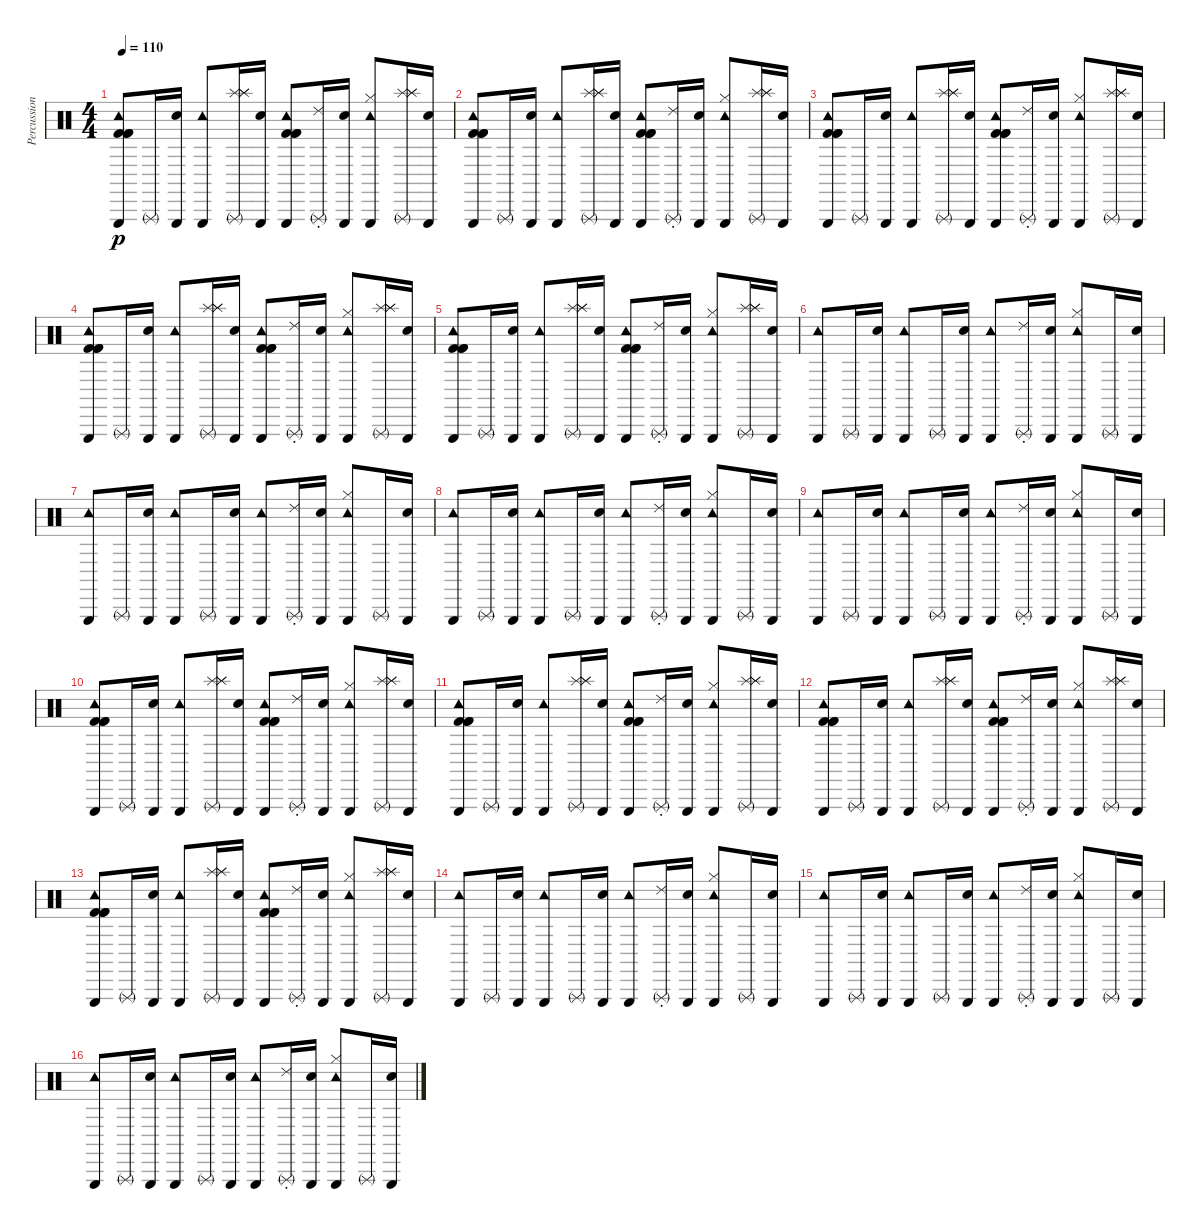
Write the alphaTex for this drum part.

\track ("Percussion" "Percussion") {instrument percussion}
\staff {score}
\articulation defaults
\ts (4 4)
\tempo 110
\clef neutral
\ks c
("Tambourine (hit)" "Triangle (hit)" "Kick (hit) 2" "Kick (hit) 2" "Kick (hit) 2").8{dy p} "Triangle (rnute)".16 ("Metronome (bell)" "Triangle (hit)").16 ("Tambourine (hit)" "Triangle (hit)").8 ("Triangle (rnute)" "Splash (hit)" "Splash (hit)" "Splash (hit)").16 ("Metronome (bell)" "Triangle (hit)").16 ("Tambourine (hit)" "Triangle (hit)" "Kick (hit) 2" "Kick (hit) 2" "Kick (hit) 2").8 ("Triangle (rnute)" "Ride (choke) 2").16 ("Metronome (bell)" "Triangle (hit)").16 ("Tambourine (hit)" "Triangle (hit)" "Hi-Hat (closed)").8 ("Triangle (rnute)" "Splash (hit)" "Splash (hit)" "Splash (hit)").16 ("Metronome (bell)" "Triangle (hit)").16 |
("Tambourine (hit)" "Triangle (hit)" "Kick (hit) 2" "Kick (hit) 2" "Kick (hit) 2").8 "Triangle (rnute)".16 ("Metronome (bell)" "Triangle (hit)").16 ("Tambourine (hit)" "Triangle (hit)").8 ("Triangle (rnute)" "Splash (hit)" "Splash (hit)" "Splash (hit)").16 ("Metronome (bell)" "Triangle (hit)").16 ("Tambourine (hit)" "Triangle (hit)" "Kick (hit) 2" "Kick (hit) 2" "Kick (hit) 2").8 ("Triangle (rnute)" "Ride (choke) 2").16 ("Metronome (bell)" "Triangle (hit)").16 ("Tambourine (hit)" "Triangle (hit)" "Hi-Hat (closed)").8 ("Triangle (rnute)" "Splash (hit)" "Splash (hit)" "Splash (hit)").16 ("Metronome (bell)" "Triangle (hit)").16 |
("Tambourine (hit)" "Triangle (hit)" "Kick (hit) 2" "Kick (hit) 2" "Kick (hit) 2").8 "Triangle (rnute)".16 ("Metronome (bell)" "Triangle (hit)").16 ("Tambourine (hit)" "Triangle (hit)").8 ("Triangle (rnute)" "Splash (hit)" "Splash (hit)" "Splash (hit)").16 ("Metronome (bell)" "Triangle (hit)").16 ("Tambourine (hit)" "Triangle (hit)" "Kick (hit) 2" "Kick (hit) 2" "Kick (hit) 2").8 ("Triangle (rnute)" "Ride (choke) 2").16 ("Metronome (bell)" "Triangle (hit)").16 ("Tambourine (hit)" "Triangle (hit)" "Hi-Hat (closed)").8 ("Triangle (rnute)" "Splash (hit)" "Splash (hit)" "Splash (hit)").16 ("Metronome (bell)" "Triangle (hit)").16 |
("Tambourine (hit)" "Triangle (hit)" "Kick (hit) 2" "Kick (hit) 2" "Kick (hit) 2").8 "Triangle (rnute)".16 ("Metronome (bell)" "Triangle (hit)").16 ("Tambourine (hit)" "Triangle (hit)").8 ("Triangle (rnute)" "Splash (hit)" "Splash (hit)" "Splash (hit)").16 ("Metronome (bell)" "Triangle (hit)").16 ("Tambourine (hit)" "Triangle (hit)" "Kick (hit) 2" "Kick (hit) 2" "Kick (hit) 2").8 ("Triangle (rnute)" "Ride (choke) 2").16 ("Metronome (bell)" "Triangle (hit)").16 ("Tambourine (hit)" "Triangle (hit)" "Hi-Hat (closed)").8 ("Triangle (rnute)" "Splash (hit)" "Splash (hit)" "Splash (hit)").16 ("Metronome (bell)" "Triangle (hit)").16 |
("Tambourine (hit)" "Triangle (hit)" "Kick (hit) 2" "Kick (hit) 2" "Kick (hit) 2").8 "Triangle (rnute)".16 ("Metronome (bell)" "Triangle (hit)").16 ("Tambourine (hit)" "Triangle (hit)").8 ("Triangle (rnute)" "Splash (hit)" "Splash (hit)" "Splash (hit)").16 ("Metronome (bell)" "Triangle (hit)").16 ("Tambourine (hit)" "Triangle (hit)" "Kick (hit) 2" "Kick (hit) 2" "Kick (hit) 2").8 ("Triangle (rnute)" "Ride (choke) 2").16 ("Metronome (bell)" "Triangle (hit)").16 ("Tambourine (hit)" "Triangle (hit)" "Hi-Hat (closed)").8 ("Triangle (rnute)" "Splash (hit)" "Splash (hit)" "Splash (hit)").16 ("Metronome (bell)" "Triangle (hit)").16 |
("Tambourine (hit)" "Triangle (hit)").8 "Triangle (rnute)".16 ("Metronome (bell)" "Triangle (hit)").16 ("Tambourine (hit)" "Triangle (hit)").8 "Triangle (rnute)".16 ("Metronome (bell)" "Triangle (hit)").16 ("Tambourine (hit)" "Triangle (hit)").8 ("Triangle (rnute)" "Ride (choke) 2").16 ("Metronome (bell)" "Triangle (hit)").16 ("Tambourine (hit)" "Triangle (hit)" "Hi-Hat (closed)").8 "Triangle (rnute)".16 ("Metronome (bell)" "Triangle (hit)").16 |
("Tambourine (hit)" "Triangle (hit)").8 "Triangle (rnute)".16 ("Metronome (bell)" "Triangle (hit)").16 ("Tambourine (hit)" "Triangle (hit)").8 "Triangle (rnute)".16 ("Metronome (bell)" "Triangle (hit)").16 ("Tambourine (hit)" "Triangle (hit)").8 ("Triangle (rnute)" "Ride (choke) 2").16 ("Metronome (bell)" "Triangle (hit)").16 ("Tambourine (hit)" "Triangle (hit)" "Hi-Hat (closed)").8 "Triangle (rnute)".16 ("Metronome (bell)" "Triangle (hit)").16 |
("Tambourine (hit)" "Triangle (hit)").8 "Triangle (rnute)".16 ("Metronome (bell)" "Triangle (hit)").16 ("Tambourine (hit)" "Triangle (hit)").8 "Triangle (rnute)".16 ("Metronome (bell)" "Triangle (hit)").16 ("Tambourine (hit)" "Triangle (hit)").8 ("Triangle (rnute)" "Ride (choke) 2").16 ("Metronome (bell)" "Triangle (hit)").16 ("Tambourine (hit)" "Triangle (hit)" "Hi-Hat (closed)").8 "Triangle (rnute)".16 ("Metronome (bell)" "Triangle (hit)").16 |
("Tambourine (hit)" "Triangle (hit)").8 "Triangle (rnute)".16 ("Metronome (bell)" "Triangle (hit)").16 ("Tambourine (hit)" "Triangle (hit)").8 "Triangle (rnute)".16 ("Metronome (bell)" "Triangle (hit)").16 ("Tambourine (hit)" "Triangle (hit)").8 ("Triangle (rnute)" "Ride (choke) 2").16 ("Metronome (bell)" "Triangle (hit)").16 ("Tambourine (hit)" "Triangle (hit)" "Hi-Hat (closed)").8 "Triangle (rnute)".16 ("Metronome (bell)" "Triangle (hit)").16 |
("Tambourine (hit)" "Triangle (hit)" "Kick (hit) 2" "Kick (hit) 2" "Kick (hit) 2").8 "Triangle (rnute)".16 ("Metronome (bell)" "Triangle (hit)").16 ("Tambourine (hit)" "Triangle (hit)").8 ("Triangle (rnute)" "Splash (hit)" "Splash (hit)" "Splash (hit)").16 ("Metronome (bell)" "Triangle (hit)").16 ("Tambourine (hit)" "Triangle (hit)" "Kick (hit) 2" "Kick (hit) 2" "Kick (hit) 2").8 ("Triangle (rnute)" "Ride (choke) 2").16 ("Metronome (bell)" "Triangle (hit)").16 ("Tambourine (hit)" "Triangle (hit)" "Hi-Hat (closed)").8 ("Triangle (rnute)" "Splash (hit)" "Splash (hit)" "Splash (hit)").16 ("Metronome (bell)" "Triangle (hit)").16 |
("Tambourine (hit)" "Triangle (hit)" "Kick (hit) 2" "Kick (hit) 2" "Kick (hit) 2").8 "Triangle (rnute)".16 ("Metronome (bell)" "Triangle (hit)").16 ("Tambourine (hit)" "Triangle (hit)").8 ("Triangle (rnute)" "Splash (hit)" "Splash (hit)" "Splash (hit)").16 ("Metronome (bell)" "Triangle (hit)").16 ("Tambourine (hit)" "Triangle (hit)" "Kick (hit) 2" "Kick (hit) 2" "Kick (hit) 2").8 ("Triangle (rnute)" "Ride (choke) 2").16 ("Metronome (bell)" "Triangle (hit)").16 ("Tambourine (hit)" "Triangle (hit)" "Hi-Hat (closed)").8 ("Triangle (rnute)" "Splash (hit)" "Splash (hit)" "Splash (hit)").16 ("Metronome (bell)" "Triangle (hit)").16 |
("Tambourine (hit)" "Triangle (hit)" "Kick (hit) 2" "Kick (hit) 2" "Kick (hit) 2").8 "Triangle (rnute)".16 ("Metronome (bell)" "Triangle (hit)").16 ("Tambourine (hit)" "Triangle (hit)").8 ("Triangle (rnute)" "Splash (hit)" "Splash (hit)" "Splash (hit)").16 ("Metronome (bell)" "Triangle (hit)").16 ("Tambourine (hit)" "Triangle (hit)" "Kick (hit) 2" "Kick (hit) 2" "Kick (hit) 2").8 ("Triangle (rnute)" "Ride (choke) 2").16 ("Metronome (bell)" "Triangle (hit)").16 ("Tambourine (hit)" "Triangle (hit)" "Hi-Hat (closed)").8 ("Triangle (rnute)" "Splash (hit)" "Splash (hit)" "Splash (hit)").16 ("Metronome (bell)" "Triangle (hit)").16 |
("Tambourine (hit)" "Triangle (hit)" "Kick (hit) 2" "Kick (hit) 2" "Kick (hit) 2").8 "Triangle (rnute)".16 ("Metronome (bell)" "Triangle (hit)").16 ("Tambourine (hit)" "Triangle (hit)").8 ("Triangle (rnute)" "Splash (hit)" "Splash (hit)" "Splash (hit)").16 ("Metronome (bell)" "Triangle (hit)").16 ("Tambourine (hit)" "Triangle (hit)" "Kick (hit) 2" "Kick (hit) 2" "Kick (hit) 2").8 ("Triangle (rnute)" "Ride (choke) 2").16 ("Metronome (bell)" "Triangle (hit)").16 ("Tambourine (hit)" "Triangle (hit)" "Hi-Hat (closed)").8 ("Triangle (rnute)" "Splash (hit)" "Splash (hit)" "Splash (hit)").16 ("Metronome (bell)" "Triangle (hit)").16 |
("Tambourine (hit)" "Triangle (hit)").8 "Triangle (rnute)".16 ("Metronome (bell)" "Triangle (hit)").16 ("Tambourine (hit)" "Triangle (hit)").8 "Triangle (rnute)".16 ("Metronome (bell)" "Triangle (hit)").16 ("Tambourine (hit)" "Triangle (hit)").8 ("Triangle (rnute)" "Ride (choke) 2").16 ("Metronome (bell)" "Triangle (hit)").16 ("Tambourine (hit)" "Triangle (hit)" "Hi-Hat (closed)").8 "Triangle (rnute)".16 ("Metronome (bell)" "Triangle (hit)").16 |
("Tambourine (hit)" "Triangle (hit)").8 "Triangle (rnute)".16 ("Metronome (bell)" "Triangle (hit)").16 ("Tambourine (hit)" "Triangle (hit)").8 "Triangle (rnute)".16 ("Metronome (bell)" "Triangle (hit)").16 ("Tambourine (hit)" "Triangle (hit)").8 ("Triangle (rnute)" "Ride (choke) 2").16 ("Metronome (bell)" "Triangle (hit)").16 ("Tambourine (hit)" "Triangle (hit)" "Hi-Hat (closed)").8 "Triangle (rnute)".16 ("Metronome (bell)" "Triangle (hit)").16 |
("Tambourine (hit)" "Triangle (hit)").8 "Triangle (rnute)".16 ("Metronome (bell)" "Triangle (hit)").16 ("Tambourine (hit)" "Triangle (hit)").8 "Triangle (rnute)".16 ("Metronome (bell)" "Triangle (hit)").16 ("Tambourine (hit)" "Triangle (hit)").8 ("Triangle (rnute)" "Ride (choke) 2").16 ("Metronome (bell)" "Triangle (hit)").16 ("Tambourine (hit)" "Triangle (hit)" "Hi-Hat (closed)").8 "Triangle (rnute)".16 ("Metronome (bell)" "Triangle (hit)").16
